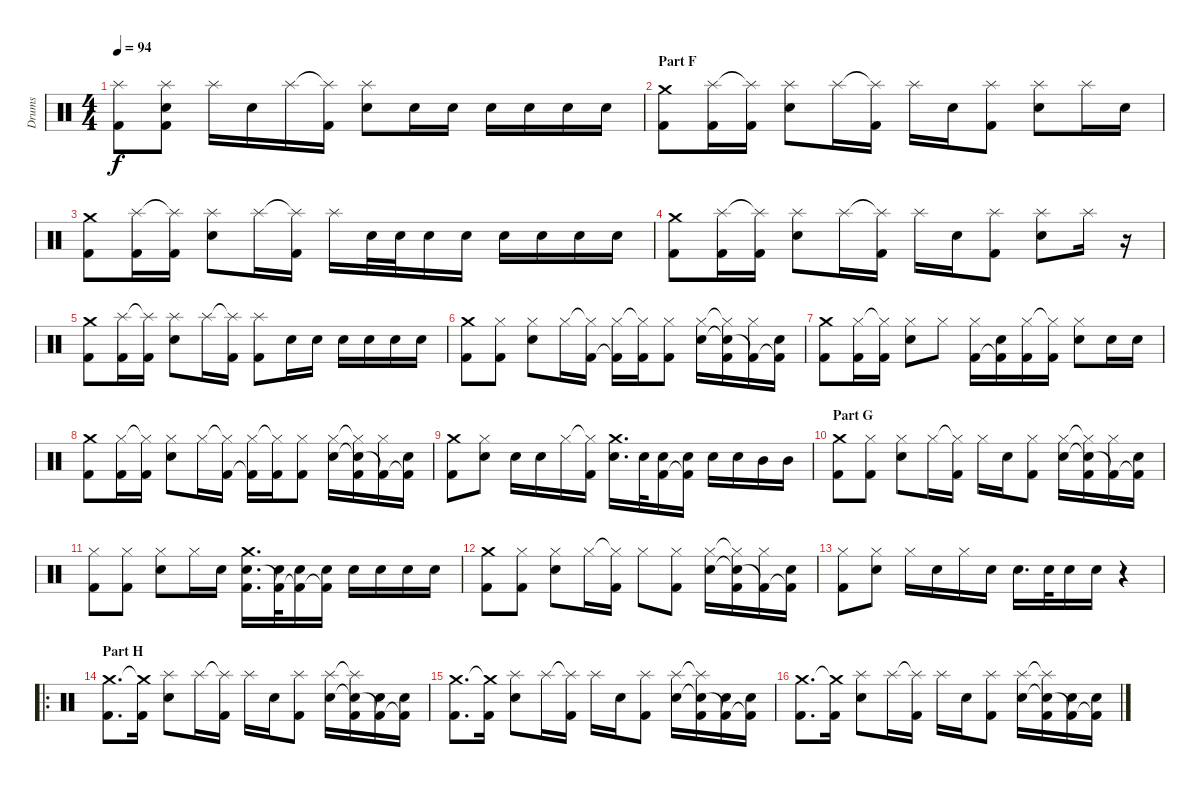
\track ("Drums" "Drums") {instrument percussion}
\staff {score}
\articulation defaults
\ts (4 4)
\tempo 94
\clef neutral
\ks c
("Splash (hit)" "Kick (hit) 2").8{dy f} ("Splash (hit)" "Electric Snare (hit)" "Kick (hit) 2"{t}).8 "Splash (hit)".16 "Electric Snare (hit)".16 "Splash (hit)".16 ("Splash (hit)"{t} "Kick (hit) 2").16 ("Splash (hit)" "Electric Snare (hit)").8 "Electric Snare (hit)".16 "Electric Snare (hit)".16 "Electric Snare (hit)".16 "Electric Snare (hit)".16 "Electric Snare (hit)".16 "Electric Snare (hit)".16 |
\section ("" "Part F")
("Crash medium (hit)" "Kick (hit) 2").8 ("Splash (hit)" "Kick (hit) 2").16 ("Splash (hit)"{t} "Kick (hit) 2").16 ("Splash (hit)" "Electric Snare (hit)").8 "Splash (hit)".16 ("Splash (hit)"{t} "Kick (hit) 2").16 "Splash (hit)".16 "Electric Snare (hit)".16 ("Splash (hit)" "Kick (hit) 2").8 ("Splash (hit)" "Electric Snare (hit)").8 "Splash (hit)".16 "Electric Snare (hit)".16 |
("Crash medium (hit)" "Kick (hit) 2").8 ("Splash (hit)" "Kick (hit) 2").16 ("Splash (hit)"{t} "Kick (hit) 2").16 ("Splash (hit)" "Electric Snare (hit)").8 "Splash (hit)".16 ("Splash (hit)"{t} "Kick (hit) 2").16 "Splash (hit)".16 "Electric Snare (hit)".32 "Electric Snare (hit)".32 "Electric Snare (hit)".16 "Electric Snare (hit)".16 "Electric Snare (hit)".16 "Electric Snare (hit)".16 "Electric Snare (hit)".16 "Electric Snare (hit)".16 |
("Crash medium (hit)" "Kick (hit) 2").8 ("Splash (hit)" "Kick (hit) 2").16 ("Splash (hit)"{t} "Kick (hit) 2").16 ("Splash (hit)" "Electric Snare (hit)").8 "Splash (hit)".16 ("Splash (hit)"{t} "Kick (hit) 2").16 "Splash (hit)".16 "Electric Snare (hit)".16 ("Splash (hit)" "Kick (hit) 2").8 ("Splash (hit)" "Electric Snare (hit)").8 "Splash (hit)".16 r.16 |
("Crash medium (hit)" "Kick (hit) 2").8 ("Splash (hit)" "Kick (hit) 2").16 ("Splash (hit)"{t} "Kick (hit) 2").16 ("Splash (hit)" "Electric Snare (hit)").8 "Splash (hit)".16 ("Splash (hit)"{t} "Kick (hit) 2").16 ("Splash (hit)" "Kick (hit) 2").8 "Electric Snare (hit)".16 "Electric Snare (hit)".16 "Electric Snare (hit)".16 "Electric Snare (hit)".16 "Electric Snare (hit)".16 "Electric Snare (hit)".16 |
("Crash medium (hit)" "Kick (hit) 2").8 ("Hi-Hat (closed)" "Kick (hit) 2").8 ("Hi-Hat (closed)" "Electric Snare (hit)").8 "Hi-Hat (closed)".16 ("Hi-Hat (closed)"{t} "Kick (hit) 2").16 ("Hi-Hat (closed)" "Kick (hit) 2"{t}).16 ("Hi-Hat (closed)"{t} "Kick (hit) 2").16 ("Hi-Hat (closed)" "Kick (hit) 2").8 ("Hi-Hat (closed)" "Electric Snare (hit)").16 ("Hi-Hat (closed)"{t} "Electric Snare (hit)"{t} "Kick (hit) 2").16 ("Hi-Hat (closed)" "Kick (hit) 2"{t}).16 ("Electric Snare (hit)" "Kick (hit) 2"{t}).16 |
("Crash medium (hit)" "Kick (hit) 2").8 ("Hi-Hat (closed)" "Kick (hit) 2").16 ("Hi-Hat (closed)"{t} "Kick (hit) 2").16 ("Hi-Hat (closed)" "Electric Snare (hit)").8 "Hi-Hat (closed)".8 ("Hi-Hat (closed)" "Kick (hit) 2").16 ("Electric Snare (hit)" "Kick (hit) 2"{t}).16 ("Hi-Hat (closed)" "Kick (hit) 2").16 ("Hi-Hat (closed)"{t} "Kick (hit) 2").16 ("Hi-Hat (closed)" "Electric Snare (hit)").8 "Electric Snare (hit)".16 "Electric Snare (hit)".16 |
("Crash medium (hit)" "Kick (hit) 2").8 ("Hi-Hat (closed)" "Kick (hit) 2").16 ("Hi-Hat (closed)"{t} "Kick (hit) 2").16 ("Hi-Hat (closed)" "Electric Snare (hit)").8 "Hi-Hat (closed)".16 ("Hi-Hat (closed)"{t} "Kick (hit) 2").16 ("Hi-Hat (closed)" "Kick (hit) 2"{t}).16 ("Hi-Hat (closed)"{t} "Kick (hit) 2").16 ("Hi-Hat (closed)" "Kick (hit) 2").8 ("Hi-Hat (closed)" "Electric Snare (hit)").16 ("Hi-Hat (closed)"{t} "Electric Snare (hit)"{t} "Kick (hit) 2").16 ("Hi-Hat (closed)" "Kick (hit) 2"{t}).16 ("Electric Snare (hit)" "Kick (hit) 2"{t}).16 |
("Crash medium (hit)" "Kick (hit) 2").8 ("Hi-Hat (closed)" "Electric Snare (hit)").8 "Electric Snare (hit)".16 "Electric Snare (hit)".16 "Hi-Hat (closed)".16 ("Hi-Hat (closed)"{t} "Kick (hit) 2").16 ("Crash medium (hit)" "Electric Snare (hit)").16{d} "Electric Snare (hit)".32 ("Electric Snare (hit)" "Kick (hit) 2").16 ("Electric Snare (hit)" "Kick (hit) 2"{t}).16 "Electric Snare (hit)".16 "Electric Snare (hit)".16 "Mid Tom (hit)".16 "Mid Tom (hit)".16 |
\section ("" "Part G")
("Crash medium (hit)" "Kick (hit) 2").8 ("Hi-Hat (closed)" "Kick (hit) 2").8 ("Hi-Hat (closed)" "Electric Snare (hit)").8 "Hi-Hat (closed)".16 ("Hi-Hat (closed)"{t} "Kick (hit) 2").16 "Hi-Hat (closed)".16 "Electric Snare (hit)".16 ("Hi-Hat (closed)" "Kick (hit) 2").8 ("Hi-Hat (closed)" "Electric Snare (hit)").16 ("Hi-Hat (closed)"{t} "Electric Snare (hit)"{t} "Kick (hit) 2").16 ("Hi-Hat (closed)" "Kick (hit) 2"{t}).16 ("Electric Snare (hit)" "Kick (hit) 2"{t}).16 |
("Hi-Hat (closed)" "Kick (hit) 2").8 ("Hi-Hat (closed)" "Kick (hit) 2").8 ("Hi-Hat (closed)" "Electric Snare (hit)").8 "Hi-Hat (closed)".16 "Electric Snare (hit)".16 ("Crash medium (hit)" "Electric Snare (hit)" "Kick (hit) 2").16{d} ("Electric Snare (hit)" "Kick (hit) 2"{t}).32 ("Electric Snare (hit)" "Kick (hit) 2"{t}).16 ("Electric Snare (hit)" "Kick (hit) 2"{t}).16 "Electric Snare (hit)".16 "Electric Snare (hit)".16 "Electric Snare (hit)".16 "Electric Snare (hit)".16 |
("Crash medium (hit)" "Kick (hit) 2").8 ("Hi-Hat (closed)" "Kick (hit) 2").8 ("Hi-Hat (closed)" "Electric Snare (hit)").8 "Hi-Hat (closed)".16 ("Hi-Hat (closed)"{t} "Kick (hit) 2").16 "Hi-Hat (closed)".8 ("Hi-Hat (closed)" "Kick (hit) 2").8 ("Hi-Hat (closed)" "Electric Snare (hit)").16 ("Hi-Hat (closed)"{t} "Electric Snare (hit)"{t} "Kick (hit) 2").16 ("Hi-Hat (closed)" "Kick (hit) 2"{t}).16 ("Electric Snare (hit)" "Kick (hit) 2"{t}).16 |
("Hi-Hat (closed)" "Kick (hit) 2").8 ("Hi-Hat (closed)" "Electric Snare (hit)").8 "Hi-Hat (closed)".16 "Electric Snare (hit)".16 "Hi-Hat (closed)".16 "Electric Snare (hit)".16 "Electric Snare (hit)".16{d} "Electric Snare (hit)".32 "Electric Snare (hit)".16 "Electric Snare (hit)".16 r.4 |
\ro
\section ("" "Part H")
("Crash medium (hit)" "Kick (hit) 2").8{d} ("Crash medium (hit)"{t} "Kick (hit) 2").16 ("Splash (hit)" "Electric Snare (hit)").8 "Splash (hit)".16 ("Splash (hit)"{t} "Kick (hit) 2").16 "Splash (hit)".16 "Electric Snare (hit)".16 ("Splash (hit)" "Kick (hit) 2").8 ("Splash (hit)" "Electric Snare (hit)").16 ("Splash (hit)"{t} "Electric Snare (hit)"{t} "Kick (hit) 2").16 ("Electric Snare (hit)" "Kick (hit) 2"{t}).16 ("Electric Snare (hit)" "Kick (hit) 2"{t}).16 |
("Crash medium (hit)" "Kick (hit) 2").8{d} ("Crash medium (hit)"{t} "Kick (hit) 2").16 ("Splash (hit)" "Electric Snare (hit)").8 "Splash (hit)".16 ("Splash (hit)"{t} "Kick (hit) 2").16 "Splash (hit)".16 "Electric Snare (hit)".16 ("Splash (hit)" "Kick (hit) 2").8 ("Splash (hit)" "Electric Snare (hit)").16 ("Splash (hit)"{t} "Electric Snare (hit)"{t} "Kick (hit) 2").16 ("Electric Snare (hit)" "Kick (hit) 2"{t}).16 ("Electric Snare (hit)" "Kick (hit) 2"{t}).16 |
("Crash medium (hit)" "Kick (hit) 2").8{d} ("Crash medium (hit)"{t} "Kick (hit) 2").16 ("Splash (hit)" "Electric Snare (hit)").8 "Splash (hit)".16 ("Splash (hit)"{t} "Kick (hit) 2").16 "Splash (hit)".16 "Electric Snare (hit)".16 ("Splash (hit)" "Kick (hit) 2").8 ("Splash (hit)" "Electric Snare (hit)").16 ("Splash (hit)"{t} "Electric Snare (hit)"{t} "Kick (hit) 2").16 ("Electric Snare (hit)" "Kick (hit) 2"{t}).16 ("Electric Snare (hit)" "Kick (hit) 2"{t}).16
